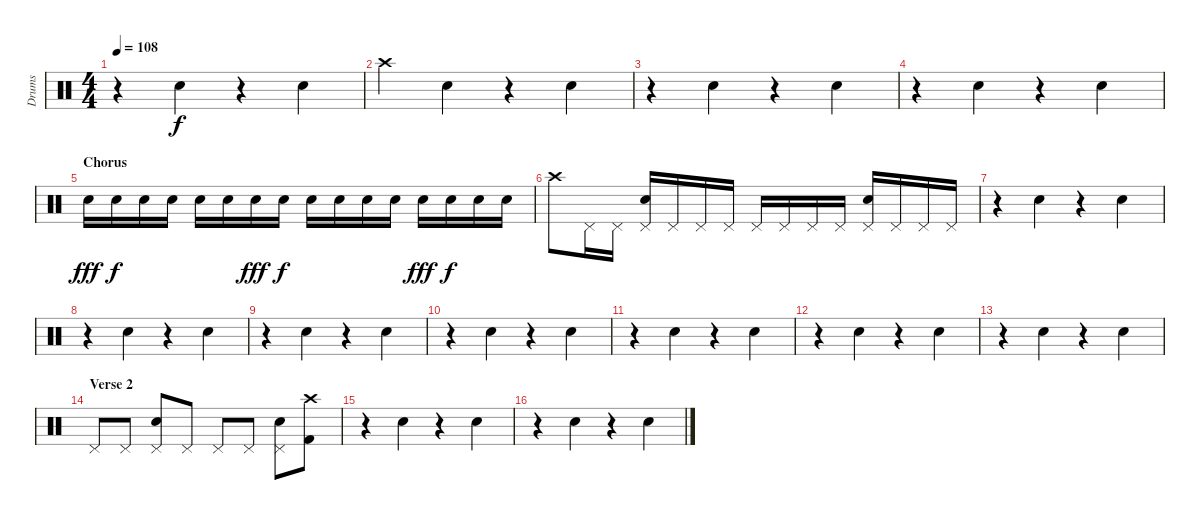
\track ("Drums" "Drums") {instrument percussion}
\staff {score}
\articulation defaults
\ts (4 4)
\tempo 108
\clef neutral
\ks c
r.4{dy f} "Snare (hit) 2".4 r.4 "Snare (hit) 2".4 |
"Crash high (hit)".4 "Snare (hit) 2".4 r.4 "Snare (hit) 2".4 |
r.4 "Snare (hit) 2".4 r.4 "Snare (hit) 2".4 |
r.4 "Snare (hit) 2".4 r.4 "Snare (hit) 2".4 |
\section ("" "Chorus")
"Snare (hit) 2".16{dy fff} "Snare (hit) 2".16{dy f} "Snare (hit) 2".16 "Snare (hit) 2".16 "Snare (hit) 2".16 "Snare (hit) 2".16 "Snare (hit) 2".16{dy fff} "Snare (hit) 2".16{dy f} "Snare (hit) 2".16 "Snare (hit) 2".16 "Snare (hit) 2".16 "Snare (hit) 2".16 "Snare (hit) 2".16{dy fff} "Snare (hit) 2".16{dy f} "Snare (hit) 2".16 "Snare (hit) 2".16 |
"Crash high (hit)".8 "Pedal Hi-Hat (hit)".16 "Pedal Hi-Hat (hit)".16 ("Pedal Hi-Hat (hit)" "Snare (hit) 2").16 "Pedal Hi-Hat (hit)".16 "Pedal Hi-Hat (hit)".16 "Pedal Hi-Hat (hit)".16 "Pedal Hi-Hat (hit)".16 "Pedal Hi-Hat (hit)".16 "Pedal Hi-Hat (hit)".16 "Pedal Hi-Hat (hit)".16 ("Pedal Hi-Hat (hit)" "Snare (hit) 2").16 "Pedal Hi-Hat (hit)".16 "Pedal Hi-Hat (hit)".16 "Pedal Hi-Hat (hit)".16 |
r.4 "Snare (hit) 2".4 r.4 "Snare (hit) 2".4 |
r.4 "Snare (hit) 2".4 r.4 "Snare (hit) 2".4 |
r.4 "Snare (hit) 2".4 r.4 "Snare (hit) 2".4 |
r.4 "Snare (hit) 2".4 r.4 "Snare (hit) 2".4 |
r.4 "Snare (hit) 2".4 r.4 "Snare (hit) 2".4 |
r.4 "Snare (hit) 2".4 r.4 "Snare (hit) 2".4 |
r.4 "Snare (hit) 2".4 r.4 "Snare (hit) 2".4 |
\section ("" "Verse 2")
"Pedal Hi-Hat (hit)".8 "Pedal Hi-Hat (hit)".8 ("Pedal Hi-Hat (hit)" "Snare (hit) 2").8 "Pedal Hi-Hat (hit)".8 "Pedal Hi-Hat (hit)".8 "Pedal Hi-Hat (hit)".8 ("Pedal Hi-Hat (hit)" "Snare (hit) 2").8 ("Crash high (hit)" "Kick (hit) 2").8 |
r.4 "Snare (hit) 2".4 r.4 "Snare (hit) 2".4 |
r.4 "Snare (hit) 2".4 r.4 "Snare (hit) 2".4
